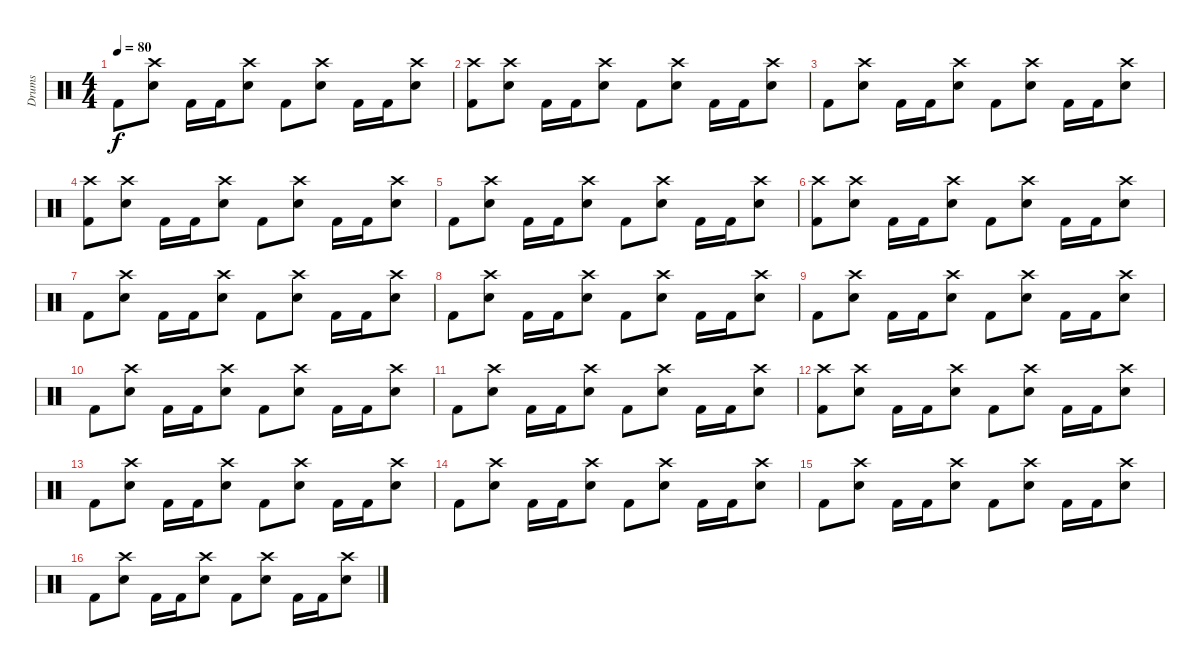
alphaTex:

\track ("Drums" "Drums") {instrument percussion}
\staff {score}
\articulation defaults
\ts (4 4)
\tempo 80
\clef neutral
\ks c "Kick (hit) 2".8{dy f}
("Snare (hit) 2" "Crash high (hit)").8 "Kick (hit) 2".16 "Kick (hit) 2".16 ("Snare (hit) 2" "Crash high (hit)").8 "Kick (hit) 2".8 ("Snare (hit) 2" "Crash high (hit)").8 "Kick (hit) 2".16 "Kick (hit) 2".16 ("Snare (hit) 2" "Crash high (hit)").8 |
("Kick (hit) 2" "Crash high (hit)").8 ("Snare (hit) 2" "Crash high (hit)").8 "Kick (hit) 2".16 "Kick (hit) 2".16 ("Snare (hit) 2" "Crash high (hit)").8 "Kick (hit) 2".8 ("Snare (hit) 2" "Crash high (hit)").8 "Kick (hit) 2".16 "Kick (hit) 2".16 ("Snare (hit) 2" "Crash high (hit)").8 |
"Kick (hit) 2".8 ("Snare (hit) 2" "Crash high (hit)").8 "Kick (hit) 2".16 "Kick (hit) 2".16 ("Snare (hit) 2" "Crash high (hit)").8 "Kick (hit) 2".8 ("Snare (hit) 2" "Crash high (hit)").8 "Kick (hit) 2".16 "Kick (hit) 2".16 ("Snare (hit) 2" "Crash high (hit)").8 |
("Kick (hit) 2" "Crash high (hit)").8 ("Snare (hit) 2" "Crash high (hit)").8 "Kick (hit) 2".16 "Kick (hit) 2".16 ("Snare (hit) 2" "Crash high (hit)").8 "Kick (hit) 2".8 ("Snare (hit) 2" "Crash high (hit)").8 "Kick (hit) 2".16 "Kick (hit) 2".16 ("Snare (hit) 2" "Crash high (hit)").8 |
"Kick (hit) 2".8 ("Snare (hit) 2" "Crash high (hit)").8 "Kick (hit) 2".16 "Kick (hit) 2".16 ("Snare (hit) 2" "Crash high (hit)").8 "Kick (hit) 2".8 ("Snare (hit) 2" "Crash high (hit)").8 "Kick (hit) 2".16 "Kick (hit) 2".16 ("Snare (hit) 2" "Crash high (hit)").8 |
("Kick (hit) 2" "Crash high (hit)").8 ("Snare (hit) 2" "Crash high (hit)").8 "Kick (hit) 2".16 "Kick (hit) 2".16 ("Snare (hit) 2" "Crash high (hit)").8 "Kick (hit) 2".8 ("Snare (hit) 2" "Crash high (hit)").8 "Kick (hit) 2".16 "Kick (hit) 2".16 ("Snare (hit) 2" "Crash high (hit)").8 |
"Kick (hit) 2".8 ("Snare (hit) 2" "Crash high (hit)").8 "Kick (hit) 2".16 "Kick (hit) 2".16 ("Snare (hit) 2" "Crash high (hit)").8 "Kick (hit) 2".8 ("Snare (hit) 2" "Crash high (hit)").8 "Kick (hit) 2".16 "Kick (hit) 2".16 ("Snare (hit) 2" "Crash high (hit)").8 |
"Kick (hit) 2".8 ("Snare (hit) 2" "Crash high (hit)").8 "Kick (hit) 2".16 "Kick (hit) 2".16 ("Snare (hit) 2" "Crash high (hit)").8 "Kick (hit) 2".8 ("Snare (hit) 2" "Crash high (hit)").8 "Kick (hit) 2".16 "Kick (hit) 2".16 ("Snare (hit) 2" "Crash high (hit)").8 |
"Kick (hit) 2".8 ("Snare (hit) 2" "Crash high (hit)").8 "Kick (hit) 2".16 "Kick (hit) 2".16 ("Snare (hit) 2" "Crash high (hit)").8 "Kick (hit) 2".8 ("Snare (hit) 2" "Crash high (hit)").8 "Kick (hit) 2".16 "Kick (hit) 2".16 ("Snare (hit) 2" "Crash high (hit)").8 |
"Kick (hit) 2".8 ("Snare (hit) 2" "Crash high (hit)").8 "Kick (hit) 2".16 "Kick (hit) 2".16 ("Snare (hit) 2" "Crash high (hit)").8 "Kick (hit) 2".8 ("Snare (hit) 2" "Crash high (hit)").8 "Kick (hit) 2".16 "Kick (hit) 2".16 ("Snare (hit) 2" "Crash high (hit)").8 |
"Kick (hit) 2".8 ("Snare (hit) 2" "Crash high (hit)").8 "Kick (hit) 2".16 "Kick (hit) 2".16 ("Snare (hit) 2" "Crash high (hit)").8 "Kick (hit) 2".8 ("Snare (hit) 2" "Crash high (hit)").8 "Kick (hit) 2".16 "Kick (hit) 2".16 ("Snare (hit) 2" "Crash high (hit)").8 |
("Kick (hit) 2" "Crash high (hit)").8 ("Snare (hit) 2" "Crash high (hit)").8 "Kick (hit) 2".16 "Kick (hit) 2".16 ("Snare (hit) 2" "Crash high (hit)").8 "Kick (hit) 2".8 ("Snare (hit) 2" "Crash high (hit)").8 "Kick (hit) 2".16 "Kick (hit) 2".16 ("Snare (hit) 2" "Crash high (hit)").8 |
"Kick (hit) 2".8 ("Snare (hit) 2" "Crash high (hit)").8 "Kick (hit) 2".16 "Kick (hit) 2".16 ("Snare (hit) 2" "Crash high (hit)").8 "Kick (hit) 2".8 ("Snare (hit) 2" "Crash high (hit)").8 "Kick (hit) 2".16 "Kick (hit) 2".16 ("Snare (hit) 2" "Crash high (hit)").8 |
"Kick (hit) 2".8 ("Snare (hit) 2" "Crash high (hit)").8 "Kick (hit) 2".16 "Kick (hit) 2".16 ("Snare (hit) 2" "Crash high (hit)").8 "Kick (hit) 2".8 ("Snare (hit) 2" "Crash high (hit)").8 "Kick (hit) 2".16 "Kick (hit) 2".16 ("Snare (hit) 2" "Crash high (hit)").8 |
"Kick (hit) 2".8 ("Snare (hit) 2" "Crash high (hit)").8 "Kick (hit) 2".16 "Kick (hit) 2".16 ("Snare (hit) 2" "Crash high (hit)").8 "Kick (hit) 2".8 ("Snare (hit) 2" "Crash high (hit)").8 "Kick (hit) 2".16 "Kick (hit) 2".16 ("Snare (hit) 2" "Crash high (hit)").8 |
"Kick (hit) 2".8 ("Snare (hit) 2" "Crash high (hit)").8 "Kick (hit) 2".16 "Kick (hit) 2".16 ("Snare (hit) 2" "Crash high (hit)").8 "Kick (hit) 2".8 ("Snare (hit) 2" "Crash high (hit)").8 "Kick (hit) 2".16 "Kick (hit) 2".16 ("Snare (hit) 2" "Crash high (hit)").8
